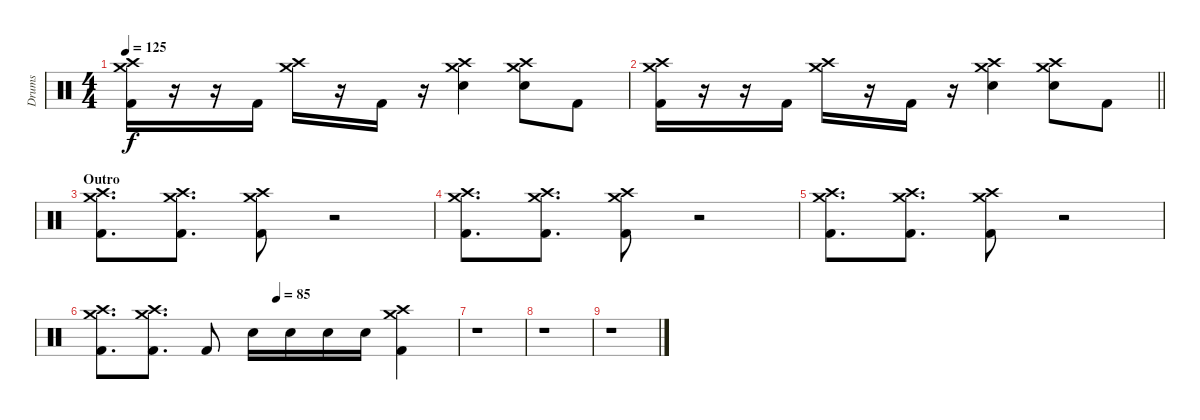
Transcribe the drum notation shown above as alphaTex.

\track ("Drums" "Drums") {instrument percussion}
\staff {score}
\articulation defaults
\ts (4 4)
\tempo 125
\clef neutral
\ks c
("Crash high (hit)" "Crash medium (hit)" "Kick (hit) 2").16{dy f} r.16 r.16 "Kick (hit) 2".16 ("Crash high (hit)" "Crash medium (hit)").16 r.16 "Kick (hit) 2".16 r.16 ("Crash high (hit)" "Crash medium (hit)" "Snare (hit) 2").4 ("Crash high (hit)" "Crash medium (hit)" "Snare (hit) 2").8 "Kick (hit) 2".8 |
\barLineRight lightlight
("Crash high (hit)" "Crash medium (hit)" "Kick (hit) 2").16 r.16 r.16 "Kick (hit) 2".16 ("Crash high (hit)" "Crash medium (hit)").16 r.16 "Kick (hit) 2".16 r.16 ("Crash high (hit)" "Crash medium (hit)" "Snare (hit) 2").4 ("Crash high (hit)" "Crash medium (hit)" "Snare (hit) 2").8 "Kick (hit) 2".8 |
\section ("" "Outro")
("Crash high (hit)" "Crash medium (hit)" "Kick (hit) 2").8{d} ("Crash high (hit)" "Crash medium (hit)" "Kick (hit) 2").8{d} ("Crash high (hit)" "Crash medium (hit)" "Kick (hit) 2").8 r.2 |
("Crash high (hit)" "Crash medium (hit)" "Kick (hit) 2").8{d} ("Crash high (hit)" "Crash medium (hit)" "Kick (hit) 2").8{d} ("Crash high (hit)" "Crash medium (hit)" "Kick (hit) 2").8 r.2 |
("Crash high (hit)" "Crash medium (hit)" "Kick (hit) 2").8{d} ("Crash high (hit)" "Crash medium (hit)" "Kick (hit) 2").8{d} ("Crash high (hit)" "Crash medium (hit)" "Kick (hit) 2").8 r.2 |
\tempo (85 0.5)
("Crash high (hit)" "Crash medium (hit)" "Kick (hit) 2").8{d} ("Crash high (hit)" "Crash medium (hit)" "Kick (hit) 2").8{d} "Kick (hit) 2".8 "Snare (hit) 2".16 "Snare (hit) 2".16 "Snare (hit) 2".16 "Snare (hit) 2".16 ("Crash medium (hit)" "Crash high (hit)" "Kick (hit) 2").4 |
r.1 |
r.1 |
r.1
